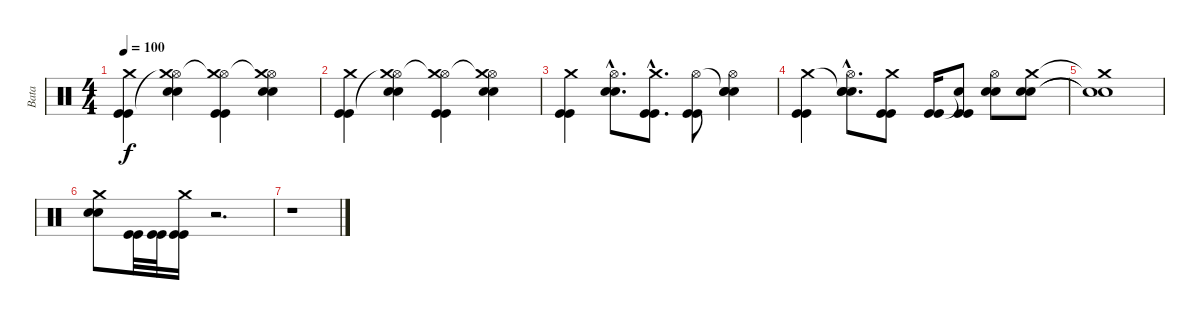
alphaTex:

\track ("Bata" "Bata") {instrument percussion}
\staff {score}
\articulation defaults
\ts (4 4)
\tempo 100
\clef neutral
\ks c
("Crash medium (hit)" "Kick (hit)" "Kick (hit)").4{dy f} ("Hi-Hat (open)" "Crash medium (hit)"{t} "Electric Snare (hit)" "Electric Snare (hit)").4 ("Hi-Hat (open)" "Crash medium (hit)"{t} "Kick (hit)" "Kick (hit)").4 ("Hi-Hat (open)" "Crash medium (hit)"{t} "Electric Snare (hit)" "Electric Snare (hit)").4 |
("Crash medium (hit)" "Kick (hit)" "Kick (hit)").4 ("Hi-Hat (open)" "Crash medium (hit)"{t} "Electric Snare (hit)" "Electric Snare (hit)").4 ("Hi-Hat (open)" "Crash medium (hit)"{t} "Kick (hit)" "Kick (hit)").4 ("Hi-Hat (open)" "Crash medium (hit)"{t} "Electric Snare (hit)" "Electric Snare (hit)").4 |
("Crash medium (hit)" "Kick (hit)" "Kick (hit)").4 ("Hi-Hat (open)"{hac} "Electric Snare (hit)"{hac} "Electric Snare (hit)"{hac}).8{d} ("Crash medium (hit)"{hac} "Kick (hit)"{hac} "Kick (hit)"{hac}).8{d} ("Hi-Hat (open)" "Kick (hit)" "Kick (hit)").8 ("Snare (hit)"{t} "Hi-Hat (open)" "Electric Snare (hit)" "Electric Snare (hit)").4 |
("Crash medium (hit)" "Kick (hit)" "Kick (hit)").4 ("Snare (hit)"{hac t} "Hi-Hat (open)"{hac} "Electric Snare (hit)"{hac} "Electric Snare (hit)"{hac}).8{d} ("Crash medium (hit)" "Kick (hit)" "Kick (hit)").8 ("Kick (hit)" "Kick (hit)").16 ("Snare (hit)"{t} "Kick (hit)" "Kick (hit)").8 ("Hi-Hat (open)" "Electric Snare (hit)" "Electric Snare (hit)").8 ("Crash medium (hit)" "Electric Snare (hit)" "Electric Snare (hit)").8 |
("Crash medium (hit)"{t} "Electric Snare (hit)"{t} "Electric Snare (hit)"{t}).1 |
("Crash medium (hit)" "Electric Snare (hit)" "Electric Snare (hit)").8 ("Kick (hit)" "Kick (hit)").32 ("Kick (hit)" "Kick (hit)").32 ("Crash medium (hit)" "Kick (hit)" "Kick (hit)").16 r.2{d} |
r.1
